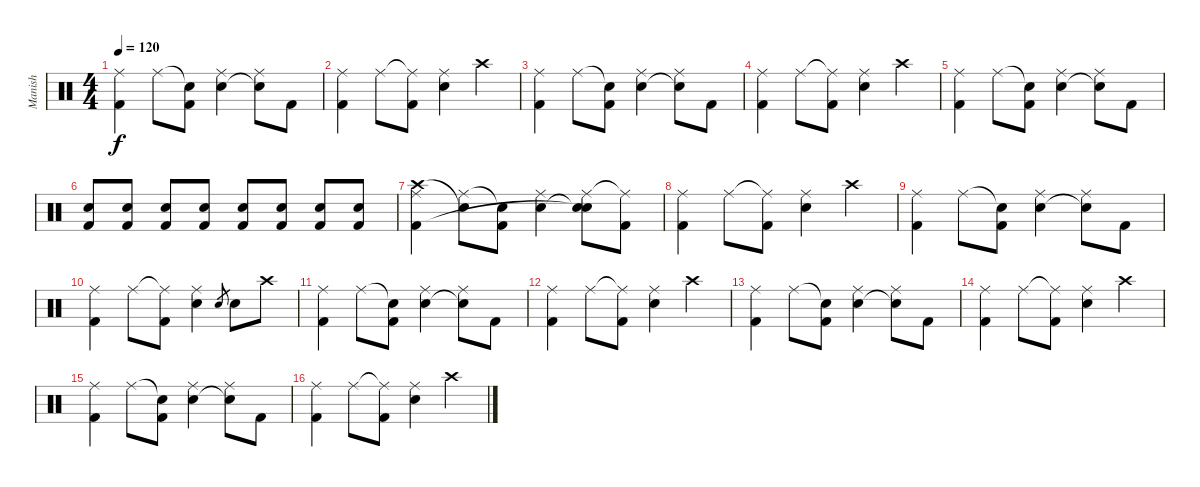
\track ("Manish" "Manish") {instrument percussion}
\staff {score}
\articulation defaults
\ts (4 4)
\tempo 120
\clef neutral
\ks c
("Ride (middle)" "Kick (hit) 2").4{dy f} "Ride (middle)".8 ("Snare (hit)"{t} "Kick (hit) 2").8 ("Ride (middle)" "Snare (hit) 2").4 ("Ride (middle)" "Snare (hit)"{t}).8 "Kick (hit) 2".8 |
("Ride (middle)" "Kick (hit) 2").4 "Ride (middle)".8 ("Ride (middle)"{t} "Kick (hit) 2").8 ("Ride (middle)" "Snare (hit) 2").4 "Crash high (hit)".4 |
("Ride (middle)" "Kick (hit) 2").4 "Ride (middle)".8 ("Snare (hit)"{t} "Kick (hit) 2").8 ("Ride (middle)" "Snare (hit) 2").4 ("Ride (middle)" "Snare (hit)"{t}).8 "Kick (hit) 2".8 |
("Ride (middle)" "Kick (hit) 2").4 "Ride (middle)".8 ("Ride (middle)"{t} "Kick (hit) 2").8 ("Ride (middle)" "Snare (hit) 2").4 "Crash high (hit)".4 |
("Ride (middle)" "Kick (hit) 2").4 "Ride (middle)".8 ("Snare (hit)"{t} "Kick (hit) 2").8 ("Ride (middle)" "Snare (hit) 2").4 ("Ride (middle)" "Snare (hit)"{t}).8 "Kick (hit) 2".8 |
("Snare (hit) 2" "Kick (hit) 2").8 ("Snare (hit) 2" "Kick (hit) 2").8 ("Snare (hit) 2" "Kick (hit) 2").8 ("Snare (hit) 2" "Kick (hit) 2").8 ("Snare (hit) 2" "Kick (hit) 2").8 ("Snare (hit) 2" "Kick (hit) 2").8 ("Snare (hit) 2" "Kick (hit) 2").8 ("Snare (hit) 2" "Kick (hit) 2").8 |
("Ride (middle)" "Crash high (hit)" "Kick (hit) 2").4 ("Ride (middle)" "Snare (hit)"{t}).8 ("Snare (hit)"{t} "Kick (hit) 2").8 ("Ride (middle)" "Snare (hit) 2").4 ("Ride (middle)" "Snare (hit)"{t} "Snare (hit)"{t}).8 ("Ride (middle)"{t} "Kick (hit) 2").8 |
("Ride (middle)" "Kick (hit) 2").4 "Ride (middle)".8 ("Ride (middle)"{t} "Kick (hit) 2").8 ("Ride (middle)" "Snare (hit) 2").4 "Crash high (hit)".4 |
("Ride (middle)" "Kick (hit) 2").4 "Ride (middle)".8 ("Snare (hit)"{t} "Kick (hit) 2").8 ("Ride (middle)" "Snare (hit) 2").4 ("Ride (middle)" "Snare (hit)"{t}).8 "Kick (hit) 2".8 |
("Ride (middle)" "Kick (hit) 2").4 "Ride (middle)".8 ("Ride (middle)"{t} "Kick (hit) 2").8 ("Ride (middle)" "Snare (hit) 2").4 "Snare (hit) 2".8{gr} "Snare (hit) 2".8 "Crash high (hit)".8 |
("Ride (middle)" "Kick (hit) 2").4 "Ride (middle)".8 ("Snare (hit)"{t} "Kick (hit) 2").8 ("Ride (middle)" "Snare (hit) 2").4 ("Ride (middle)" "Snare (hit)"{t}).8 "Kick (hit) 2".8 |
("Ride (middle)" "Kick (hit) 2").4 "Ride (middle)".8 ("Ride (middle)"{t} "Kick (hit) 2").8 ("Ride (middle)" "Snare (hit) 2").4 "Crash high (hit)".4 |
("Ride (middle)" "Kick (hit) 2").4 "Ride (middle)".8 ("Snare (hit)"{t} "Kick (hit) 2").8 ("Ride (middle)" "Snare (hit) 2").4 ("Ride (middle)" "Snare (hit)"{t}).8 "Kick (hit) 2".8 |
("Ride (middle)" "Kick (hit) 2").4 "Ride (middle)".8 ("Ride (middle)"{t} "Kick (hit) 2").8 ("Ride (middle)" "Snare (hit) 2").4 "Crash high (hit)".4 |
("Ride (middle)" "Kick (hit) 2").4 "Ride (middle)".8 ("Snare (hit)"{t} "Kick (hit) 2").8 ("Ride (middle)" "Snare (hit) 2").4 ("Ride (middle)" "Snare (hit)"{t}).8 "Kick (hit) 2".8 |
("Ride (middle)" "Kick (hit) 2").4 "Ride (middle)".8 ("Ride (middle)"{t} "Kick (hit) 2").8 ("Ride (middle)" "Snare (hit) 2").4 "Crash high (hit)".4
